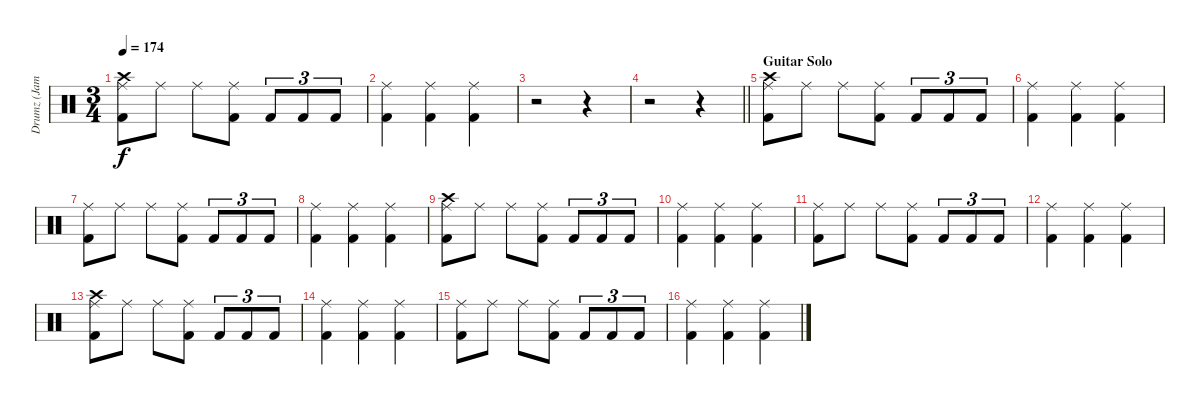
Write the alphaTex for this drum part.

\track ("Drumz (James Kottak)" "Drumz (Jam") {instrument percussion}
\staff {score}
\articulation defaults
\ts (3 4)
\tempo 174
\clef neutral
\ks c
("Ride (middle)" "Crash high (hit)" "Kick (hit) 2").8{dy f} "Ride (middle)".8 "Ride (middle)".8 ("Ride (middle)" "Kick (hit) 2").8 "Kick (hit) 2".8{tu (3 2)} "Kick (hit) 2".8{tu (3 2)} "Kick (hit) 2".8{tu (3 2)} |
("Ride (middle)" "Kick (hit) 2").4 ("Kick (hit) 2" "Ride (middle)").4 ("Ride (middle)" "Kick (hit) 2").4 |
r.2 r.4 |
\barLineRight lightlight
r.2 r.4 |
\section ("" "Guitar Solo")
("Ride (middle)" "Crash high (hit)" "Kick (hit) 2").8 "Ride (middle)".8 "Ride (middle)".8 ("Ride (middle)" "Kick (hit) 2").8 "Kick (hit) 2".8{tu (3 2)} "Kick (hit) 2".8{tu (3 2)} "Kick (hit) 2".8{tu (3 2)} |
("Ride (middle)" "Kick (hit) 2").4 ("Kick (hit) 2" "Ride (middle)").4 ("Ride (middle)" "Kick (hit) 2").4 |
("Ride (middle)" "Kick (hit) 2").8 "Ride (middle)".8 "Ride (middle)".8 ("Ride (middle)" "Kick (hit) 2").8 "Kick (hit) 2".8{tu (3 2)} "Kick (hit) 2".8{tu (3 2)} "Kick (hit) 2".8{tu (3 2)} |
("Ride (middle)" "Kick (hit) 2").4 ("Kick (hit) 2" "Ride (middle)").4 ("Ride (middle)" "Kick (hit) 2").4 |
("Ride (middle)" "Crash high (hit)" "Kick (hit) 2").8 "Ride (middle)".8 "Ride (middle)".8 ("Ride (middle)" "Kick (hit) 2").8 "Kick (hit) 2".8{tu (3 2)} "Kick (hit) 2".8{tu (3 2)} "Kick (hit) 2".8{tu (3 2)} |
("Ride (middle)" "Kick (hit) 2").4 ("Kick (hit) 2" "Ride (middle)").4 ("Ride (middle)" "Kick (hit) 2").4 |
("Ride (middle)" "Kick (hit) 2").8 "Ride (middle)".8 "Ride (middle)".8 ("Ride (middle)" "Kick (hit) 2").8 "Kick (hit) 2".8{tu (3 2)} "Kick (hit) 2".8{tu (3 2)} "Kick (hit) 2".8{tu (3 2)} |
("Ride (middle)" "Kick (hit) 2").4 ("Kick (hit) 2" "Ride (middle)").4 ("Ride (middle)" "Kick (hit) 2").4 |
("Ride (middle)" "Crash high (hit)" "Kick (hit) 2").8 "Ride (middle)".8 "Ride (middle)".8 ("Ride (middle)" "Kick (hit) 2").8 "Kick (hit) 2".8{tu (3 2)} "Kick (hit) 2".8{tu (3 2)} "Kick (hit) 2".8{tu (3 2)} |
("Ride (middle)" "Kick (hit) 2").4 ("Kick (hit) 2" "Ride (middle)").4 ("Ride (middle)" "Kick (hit) 2").4 |
("Ride (middle)" "Kick (hit) 2").8 "Ride (middle)".8 "Ride (middle)".8 ("Ride (middle)" "Kick (hit) 2").8 "Kick (hit) 2".8{tu (3 2)} "Kick (hit) 2".8{tu (3 2)} "Kick (hit) 2".8{tu (3 2)} |
("Ride (middle)" "Kick (hit) 2").4 ("Kick (hit) 2" "Ride (middle)").4 ("Ride (middle)" "Kick (hit) 2").4
